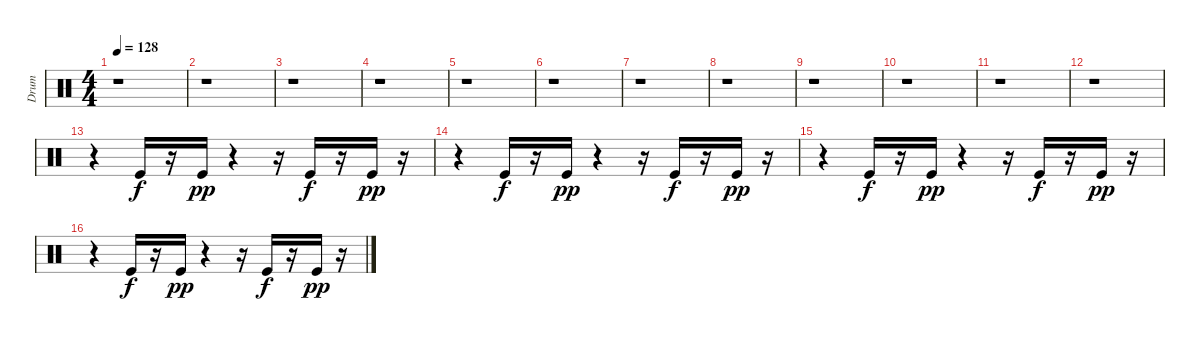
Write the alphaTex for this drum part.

\track ("Drum" "Drum") {instrument percussion}
\staff {score}
\articulation defaults
\ts (4 4)
\tempo 128
\clef neutral
\ks c
r.1{dy pp} |
r.1 |
r.1 |
r.1 |
r.1 |
r.1 |
r.1 |
r.1 |
r.1 |
r.1 |
r.1 |
r.1 |
r.4 "Kick (hit)".16{dy f} r.16 "Kick (hit)".16{dy pp} r.4 r.16 "Kick (hit)".16{dy f} r.16 "Kick (hit)".16{dy pp} r.16 |
r.4 "Kick (hit)".16{dy f} r.16 "Kick (hit)".16{dy pp} r.4 r.16 "Kick (hit)".16{dy f} r.16 "Kick (hit)".16{dy pp} r.16 |
r.4 "Kick (hit)".16{dy f} r.16 "Kick (hit)".16{dy pp} r.4 r.16 "Kick (hit)".16{dy f} r.16 "Kick (hit)".16{dy pp} r.16 |
r.4 "Kick (hit)".16{dy f} r.16 "Kick (hit)".16{dy pp} r.4 r.16 "Kick (hit)".16{dy f} r.16 "Kick (hit)".16{dy pp} r.16
